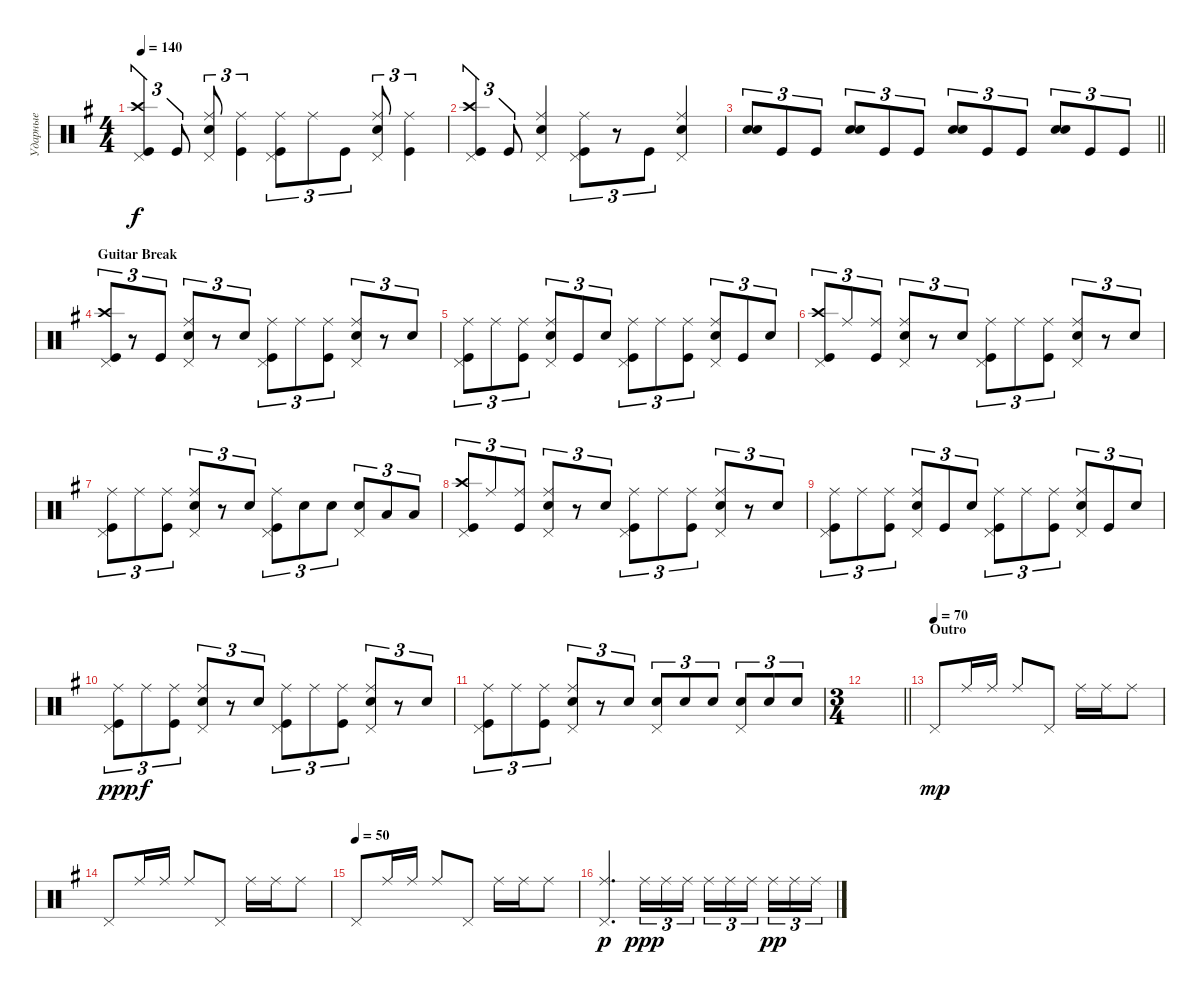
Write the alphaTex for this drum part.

\track ("Ударные" "Ударные") {instrument percussion}
\staff {score}
\articulation defaults
\ts (4 4)
\tempo 140
\clef neutral
\ks eminor
("Kick (hit)" "Crash high (hit)" "Pedal Hi-Hat (hit)").4{tu (3 2) dy f} "Kick (hit)".8{tu (3 2)} ("Snare (hit) 2" "Ride (middle)" "Pedal Hi-Hat (hit)").8{tu (3 2)} ("Kick (hit)" "Ride (middle)").4{tu (3 2)} ("Kick (hit)" "Ride (middle)" "Pedal Hi-Hat (hit)").8{tu (3 2)} "Ride (middle)".8{tu (3 2)} "Kick (hit)".8{tu (3 2)} ("Snare (hit) 2" "Ride (middle)" "Pedal Hi-Hat (hit)").8{tu (3 2)} ("Kick (hit)" "Ride (middle)").4{tu (3 2)} |
("Kick (hit)" "Crash high (hit)" "Pedal Hi-Hat (hit)").4{tu (3 2)} "Kick (hit)".8{tu (3 2)} ("Snare (hit) 2" "Ride (middle)" "Pedal Hi-Hat (hit)").4 ("Kick (hit)" "Ride (middle)" "Pedal Hi-Hat (hit)").8{tu (3 2)} r.8{tu (3 2)} "Kick (hit)".8{tu (3 2)} ("Snare (hit) 2" "Ride (middle)" "Pedal Hi-Hat (hit)").4 |
\barLineRight lightlight
("Snare (hit) 2" "Snare (hit) 2").8{tu (3 2) bd 240} "Kick (hit)".8{tu (3 2)} "Kick (hit)".8{tu (3 2)} ("Snare (hit) 2" "Snare (hit) 2").8{tu (3 2) bd 240} "Kick (hit)".8{tu (3 2)} "Kick (hit)".8{tu (3 2)} ("Snare (hit) 2" "Snare (hit) 2").8{tu (3 2) bd 240} "Kick (hit)".8{tu (3 2)} "Kick (hit)".8{tu (3 2)} ("Snare (hit) 2" "Snare (hit) 2").8{tu (3 2) bd 240} "Kick (hit)".8{tu (3 2)} "Kick (hit)".8{tu (3 2)} |
\section ("" "Guitar Break")
("Kick (hit)" "Crash high (hit)" "Pedal Hi-Hat (hit)").8{tu (3 2)} r.8{tu (3 2)} "Kick (hit)".8{tu (3 2)} ("Snare (hit) 2" "Ride (middle)" "Pedal Hi-Hat (hit)").8{tu (3 2)} r.8{tu (3 2)} "Snare (hit) 2".8{tu (3 2)} ("Kick (hit)" "Ride (middle)" "Pedal Hi-Hat (hit)").8{tu (3 2)} "Ride (middle)".8{tu (3 2)} ("Kick (hit)" "Ride (middle)").8{tu (3 2)} ("Snare (hit) 2" "Ride (middle)" "Pedal Hi-Hat (hit)").8{tu (3 2)} r.8{tu (3 2)} "Snare (hit) 2".8{tu (3 2)} |
("Kick (hit)" "Ride (middle)" "Pedal Hi-Hat (hit)").8{tu (3 2)} "Ride (middle)".8{tu (3 2)} ("Kick (hit)" "Ride (middle)").8{tu (3 2)} ("Snare (hit) 2" "Ride (middle)" "Pedal Hi-Hat (hit)").8{tu (3 2)} "Kick (hit)".8{tu (3 2)} "Snare (hit) 2".8{tu (3 2)} ("Kick (hit)" "Ride (middle)" "Pedal Hi-Hat (hit)").8{tu (3 2)} "Ride (middle)".8{tu (3 2)} ("Kick (hit)" "Ride (middle)").8{tu (3 2)} ("Snare (hit) 2" "Ride (middle)" "Pedal Hi-Hat (hit)").8{tu (3 2)} "Kick (hit)".8{tu (3 2)} "Snare (hit) 2".8{tu (3 2)} |
("Kick (hit)" "Crash high (hit)" "Pedal Hi-Hat (hit)").8{tu (3 2)} "Ride (middle)".8{tu (3 2)} ("Kick (hit)" "Ride (middle)").8{tu (3 2)} ("Snare (hit) 2" "Ride (middle)" "Pedal Hi-Hat (hit)").8{tu (3 2)} r.8{tu (3 2)} "Snare (hit) 2".8{tu (3 2)} ("Kick (hit)" "Ride (middle)" "Pedal Hi-Hat (hit)").8{tu (3 2)} "Ride (middle)".8{tu (3 2)} ("Kick (hit)" "Ride (middle)").8{tu (3 2)} ("Snare (hit) 2" "Ride (middle)" "Pedal Hi-Hat (hit)").8{tu (3 2)} r.8{tu (3 2)} "Snare (hit) 2".8{tu (3 2)} |
("Kick (hit)" "Ride (middle)" "Pedal Hi-Hat (hit)").8{tu (3 2)} "Ride (middle)".8{tu (3 2)} ("Kick (hit)" "Ride (middle)").8{tu (3 2)} ("Snare (hit) 2" "Ride (middle)" "Pedal Hi-Hat (hit)").8{tu (3 2)} r.8{tu (3 2)} "Snare (hit) 2".8{tu (3 2)} ("Kick (hit)" "Ride (middle)" "Pedal Hi-Hat (hit)").8{tu (3 2)} "Snare (hit) 2".8{tu (3 2)} "Snare (hit) 2".8{tu (3 2)} ("Snare (hit) 2" "Pedal Hi-Hat (hit)").8{tu (3 2)} "Low Tom (hit)".8{tu (3 2)} "Low Tom (hit)".8{tu (3 2)} |
("Kick (hit)" "Crash high (hit)" "Pedal Hi-Hat (hit)").8{tu (3 2)} "Ride (middle)".8{tu (3 2)} ("Kick (hit)" "Ride (middle)").8{tu (3 2)} ("Snare (hit) 2" "Ride (middle)" "Pedal Hi-Hat (hit)").8{tu (3 2)} r.8{tu (3 2)} "Snare (hit) 2".8{tu (3 2)} ("Kick (hit)" "Ride (middle)" "Pedal Hi-Hat (hit)").8{tu (3 2)} "Ride (middle)".8{tu (3 2)} ("Kick (hit)" "Ride (middle)").8{tu (3 2)} ("Snare (hit) 2" "Ride (middle)" "Pedal Hi-Hat (hit)").8{tu (3 2)} r.8{tu (3 2)} "Snare (hit) 2".8{tu (3 2)} |
("Kick (hit)" "Ride (middle)" "Pedal Hi-Hat (hit)").8{tu (3 2)} "Ride (middle)".8{tu (3 2)} ("Kick (hit)" "Ride (middle)").8{tu (3 2)} ("Snare (hit) 2" "Ride (middle)" "Pedal Hi-Hat (hit)").8{tu (3 2)} "Kick (hit)".8{tu (3 2)} "Snare (hit) 2".8{tu (3 2)} ("Kick (hit)" "Ride (middle)" "Pedal Hi-Hat (hit)").8{tu (3 2)} "Ride (middle)".8{tu (3 2)} ("Kick (hit)" "Ride (middle)").8{tu (3 2)} ("Snare (hit) 2" "Ride (middle)" "Pedal Hi-Hat (hit)").8{tu (3 2)} "Kick (hit)".8{tu (3 2)} "Snare (hit) 2".8{tu (3 2)} |
("Kick (hit)" "Ride (middle)" "Pedal Hi-Hat (hit)").8{tu (3 2) dy ppp} "Ride (middle)".8{tu (3 2) dy f} ("Kick (hit)" "Ride (middle)").8{tu (3 2)} ("Snare (hit) 2" "Ride (middle)" "Pedal Hi-Hat (hit)").8{tu (3 2)} r.8{tu (3 2)} "Snare (hit) 2".8{tu (3 2)} ("Kick (hit)" "Ride (middle)" "Pedal Hi-Hat (hit)").8{tu (3 2)} "Ride (middle)".8{tu (3 2)} ("Kick (hit)" "Ride (middle)").8{tu (3 2)} ("Snare (hit) 2" "Ride (middle)" "Pedal Hi-Hat (hit)").8{tu (3 2)} r.8{tu (3 2)} "Snare (hit) 2".8{tu (3 2)} |
("Kick (hit)" "Ride (middle)" "Pedal Hi-Hat (hit)").8{tu (3 2)} "Ride (middle)".8{tu (3 2)} ("Kick (hit)" "Ride (middle)").8{tu (3 2)} ("Snare (hit) 2" "Ride (middle)" "Pedal Hi-Hat (hit)").8{tu (3 2)} r.8{tu (3 2)} "Snare (hit) 2".8{tu (3 2)} ("Snare (hit) 2" "Pedal Hi-Hat (hit)").8{tu (3 2)} "Snare (hit) 2".8{tu (3 2)} "Snare (hit) 2".8{tu (3 2)} ("Snare (hit) 2" "Pedal Hi-Hat (hit)").8{tu (3 2)} "Snare (hit) 2".8{tu (3 2)} "Snare (hit) 2".8{tu (3 2)} |
\ts (3 4)
\barLineRight lightlight
|
\section ("" "Outro")
\tempo (70)
"Pedal Hi-Hat (hit)".8{dy mp} "Ride (middle)".16 "Ride (middle)".16 "Ride (middle)".8 "Pedal Hi-Hat (hit)".8 "Ride (middle)".16 "Ride (middle)".16 "Ride (middle)".8 |
"Pedal Hi-Hat (hit)".8 "Ride (middle)".16 "Ride (middle)".16 "Ride (middle)".8 "Pedal Hi-Hat (hit)".8 "Ride (middle)".16 "Ride (middle)".16 "Ride (middle)".8 |
\tempo (50)
"Pedal Hi-Hat (hit)".8 "Ride (middle)".16 "Ride (middle)".16 "Ride (middle)".8 "Pedal Hi-Hat (hit)".8 "Ride (middle)".16 "Ride (middle)".16 "Ride (middle)".8 |
("Pedal Hi-Hat (hit)" "Ride (middle)").4{d dy p} "Ride (middle)".16{tu (3 2) dy ppp} "Ride (middle)".16{tu (3 2)} "Ride (middle)".16{tu (3 2)} "Ride (middle)".16{tu (3 2)} "Ride (middle)".16{tu (3 2)} "Ride (middle)".16{tu (3 2) beam splitsecondary} "Ride (middle)".16{tu (3 2) dy pp} "Ride (middle)".16{tu (3 2)} "Ride (middle)".16{tu (3 2)}
